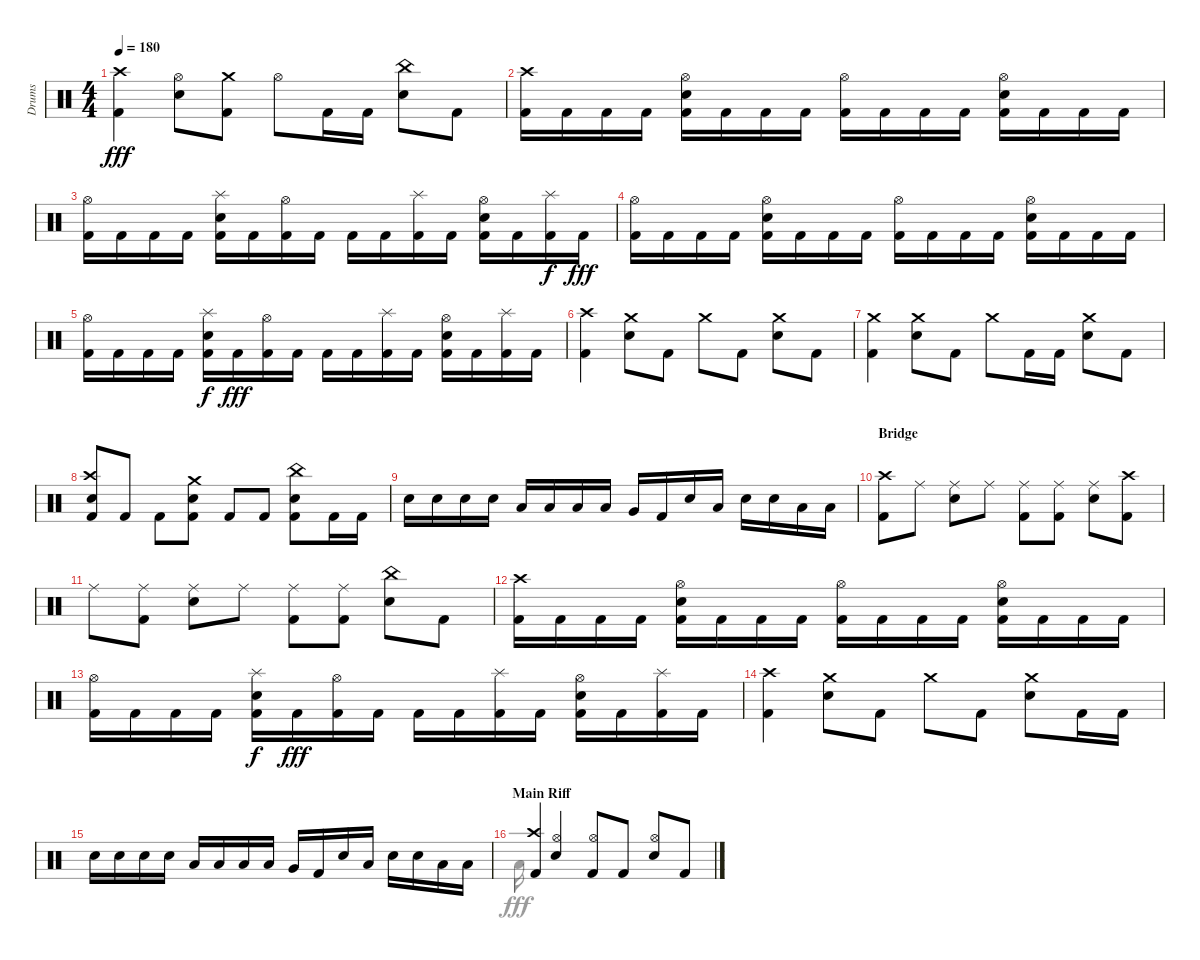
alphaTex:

\track ("Drums" "Drums") {instrument percussion}
\staff {score}
\articulation defaults
\voice
\ts (4 4)
\tempo 180
\clef neutral
\ks aminor
("Kick (hit) 2" "Crash high (hit)").4{dy fff} ("Snare (hit) 2" "Hi-Hat (open)").8 ("Kick (hit) 2" "Crash medium (hit)").8 "Hi-Hat (open)".8 "Kick (hit) 2".16 "Kick (hit) 2".16 ("Snare (hit) 2" "China (hit)").8 "Kick (hit) 2".8 |
("Crash high (hit)" "Kick (hit) 2").16 "Kick (hit) 2".16 "Kick (hit) 2".16 "Kick (hit) 2".16 ("Hi-Hat (open)" "Kick (hit) 2" "Snare (hit) 2").16 "Kick (hit) 2".16 "Kick (hit) 2".16 "Kick (hit) 2".16 ("Kick (hit) 2" "Hi-Hat (open)").16 "Kick (hit) 2".16 "Kick (hit) 2".16 "Kick (hit) 2".16 ("Hi-Hat (open)" "Kick (hit) 2" "Snare (hit) 2").16 "Kick (hit) 2".16 "Kick (hit) 2".16 "Kick (hit) 2".16 |
("Kick (hit) 2" "Hi-Hat (open)").16 "Kick (hit) 2".16 "Kick (hit) 2".16 "Kick (hit) 2".16 ("Kick (hit) 2" "Snare (hit) 2" "Splash (hit)").16 "Kick (hit) 2".16 ("Kick (hit) 2" "Hi-Hat (open)").16 "Kick (hit) 2".16 "Kick (hit) 2".16 "Kick (hit) 2".16 ("Splash (hit)" "Kick (hit) 2").16 "Kick (hit) 2".16 ("Snare (hit) 2" "Kick (hit) 2" "Hi-Hat (open)").16 "Kick (hit) 2".16 ("Splash (hit)" "Kick (hit) 2").16{dy f} "Kick (hit) 2".16{dy fff} |
("Kick (hit) 2" "Hi-Hat (open)").16 "Kick (hit) 2".16 "Kick (hit) 2".16 "Kick (hit) 2".16 ("Kick (hit) 2" "Hi-Hat (open)" "Snare (hit) 2").16 "Kick (hit) 2".16 "Kick (hit) 2".16 "Kick (hit) 2".16 ("Hi-Hat (open)" "Kick (hit) 2").16 "Kick (hit) 2".16 "Kick (hit) 2".16 "Kick (hit) 2".16 ("Snare (hit) 2" "Kick (hit) 2" "Hi-Hat (open)").16 "Kick (hit) 2".16 "Kick (hit) 2".16 "Kick (hit) 2".16 |
("Kick (hit) 2" "Hi-Hat (open)").16 "Kick (hit) 2".16 "Kick (hit) 2".16 "Kick (hit) 2".16 ("Splash (hit)" "Kick (hit) 2" "Snare (hit) 2").16{dy f} "Kick (hit) 2".16{dy fff} ("Kick (hit) 2" "Hi-Hat (open)").16 "Kick (hit) 2".16 "Kick (hit) 2".16 "Kick (hit) 2".16 ("Kick (hit) 2" "Splash (hit)").16 "Kick (hit) 2".16 ("Snare (hit) 2" "Hi-Hat (open)" "Kick (hit) 2").16 "Kick (hit) 2".16 ("Splash (hit)" "Kick (hit) 2").16 "Kick (hit) 2".16 |
("Crash high (hit)" "Kick (hit) 2").4 ("Snare (hit) 2" "Crash medium (hit)").8 "Kick (hit) 2".8 "Crash medium (hit)".8 "Kick (hit) 2".8 ("Crash medium (hit)" "Snare (hit) 2").8 "Kick (hit) 2".8 |
("Kick (hit) 2" "Crash medium (hit)").4 ("Snare (hit) 2" "Crash medium (hit)").8 "Kick (hit) 2".8 "Crash medium (hit)".8 "Kick (hit) 2".16 "Kick (hit) 2".16 ("Snare (hit) 2" "Crash medium (hit)").8 "Kick (hit) 2".8 |
("Crash high (hit)" "Kick (hit) 2" "Snare (hit) 2").8 "Kick (hit) 2".8 "Kick (hit) 2".8 ("Kick (hit) 2" "Snare (hit) 2" "Crash medium (hit)").8 "Kick (hit) 2".8 "Kick (hit) 2".8 ("China (hit)" "Kick (hit) 2" "Snare (hit) 2").8 "Kick (hit) 2".16 "Kick (hit) 2".16 |
"Snare (hit) 2".16 "Snare (hit) 2".16 "Snare (hit) 2".16 "Snare (hit) 2".16 "Low Tom (hit)".16 "Low Tom (hit)".16 "Low Tom (hit)".16 "Low Tom (hit)".16 "Very Low Tom (hit)".16 "Kick (hit) 2".16 "Snare (hit) 2".16 "Low Floor Tom (hit)".16 "Snare (hit) 2".16 "Snare (hit) 2".16 "Low Floor Tom (hit)".16 "Low Floor Tom (hit)".16 |
\section ("" "Bridge")
("Kick (hit) 2" "Crash high (hit)").8 "Ride (middle)".8 ("Snare (hit) 2" "Ride (middle)").8 "Ride (middle)".8 ("Kick (hit) 2" "Ride (middle)").8 ("Kick (hit) 2" "Ride (middle)").8 ("Snare (hit) 2" "Ride (middle)").8 ("Crash high (hit)" "Kick (hit) 2").8 |
"Ride (middle)".8 ("Kick (hit) 2" "Ride (middle)").8 ("Snare (hit) 2" "Ride (middle)").8 "Ride (middle)".8 ("Kick (hit) 2" "Ride (middle)").8 ("Ride (middle)" "Kick (hit) 2").8 ("Snare (hit) 2" "China (hit)").8 "Kick (hit) 2".8 |
("Crash high (hit)" "Kick (hit) 2").16 "Kick (hit) 2".16 "Kick (hit) 2".16 "Kick (hit) 2".16 ("Kick (hit) 2" "Snare (hit) 2" "Hi-Hat (open)").16 "Kick (hit) 2".16 "Kick (hit) 2".16 "Kick (hit) 2".16 ("Kick (hit) 2" "Hi-Hat (open)").16 "Kick (hit) 2".16 "Kick (hit) 2".16 "Kick (hit) 2".16 ("Hi-Hat (open)" "Snare (hit) 2" "Kick (hit) 2").16 "Kick (hit) 2".16 "Kick (hit) 2".16 "Kick (hit) 2".16 |
("Kick (hit) 2" "Hi-Hat (open)").16 "Kick (hit) 2".16 "Kick (hit) 2".16 "Kick (hit) 2".16 ("Snare (hit) 2" "Splash (hit)" "Kick (hit) 2").16{dy f} "Kick (hit) 2".16{dy fff} ("Kick (hit) 2" "Hi-Hat (open)").16 "Kick (hit) 2".16 "Kick (hit) 2".16 "Kick (hit) 2".16 ("Kick (hit) 2" "Splash (hit)").16 "Kick (hit) 2".16 ("Snare (hit) 2" "Hi-Hat (open)" "Kick (hit) 2").16 "Kick (hit) 2".16 ("Kick (hit) 2" "Splash (hit)").16 "Kick (hit) 2".16 |
("Crash high (hit)" "Kick (hit) 2").4 ("Snare (hit) 2" "Crash medium (hit)").8 "Kick (hit) 2".8 "Crash medium (hit)".8 "Kick (hit) 2".8 ("Snare (hit) 2" "Crash medium (hit)").8 "Kick (hit) 2".16 "Kick (hit) 2".16 |
"Snare (hit) 2".16 "Snare (hit) 2".16 "Snare (hit) 2".16 "Snare (hit) 2".16 "Low Tom (hit)".16 "Low Tom (hit)".16 "Low Tom (hit)".16 "Low Tom (hit)".16 "Very Low Tom (hit)".16 "Kick (hit) 2".16 "Snare (hit) 2".16 "Low Floor Tom (hit)".16 "Snare (hit) 2".16 "Snare (hit) 2".16 "Low Floor Tom (hit)".16 "Low Floor Tom (hit)".16 |
\section ("" "Main Riff")
("Crash high (hit)" "Kick (hit) 2").4 ("Snare (hit) 2" "Hi-Hat (open)").4 ("Kick (hit) 2" "Hi-Hat (open)").8 "Kick (hit) 2".8 ("Snare (hit) 2" "Hi-Hat (open)").8 "Kick (hit) 2".8
\voice
\clef neutral
\ottava regular
\simile none
\ks aminor
|
|
|
|
|
|
|
|
|
|
|
|
|
|
|
"Low Floor Tom (hit)".16
